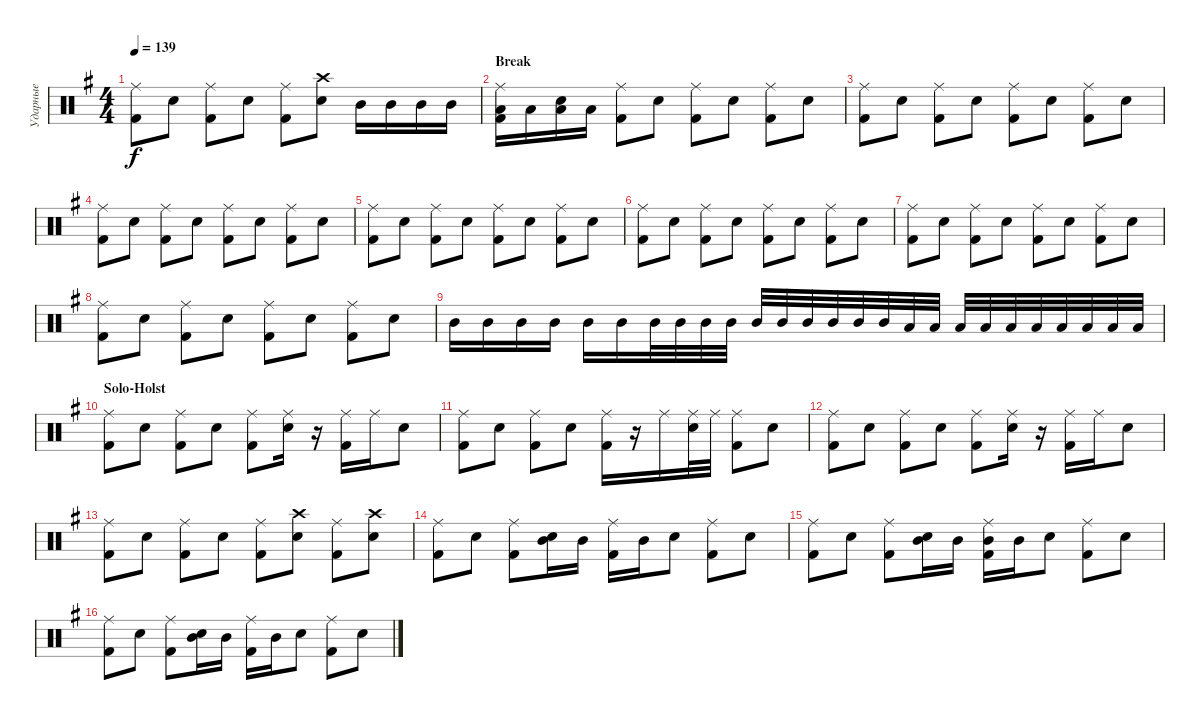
\track ("Ударные" "Ударные") {instrument percussion}
\staff {score}
\articulation defaults
\ts (4 4)
\tempo 139
\clef neutral
\ks eminor
("Ride (middle)" "Kick (hit) 2").8{dy f} "Snare (hit) 2".8 ("Ride (middle)" "Kick (hit) 2").8 "Snare (hit) 2".8 ("Ride (middle)" "Kick (hit) 2").8 ("Crash high (hit)" "Snare (hit) 2").8 "Mid Tom (hit)".16 "Mid Tom (hit)".16 "Mid Tom (hit)".16 "Mid Tom (hit)".16 |
\section ("" "Break")
("Ride (middle)" "Low Tom (hit)" "Kick (hit) 2").16 "Low Tom (hit)".16 ("Snare (hit) 2" "Low Tom (hit)").16 "Low Tom (hit)".16 ("Ride (middle)" "Kick (hit) 2").8 "Snare (hit) 2".8 ("Ride (middle)" "Kick (hit) 2").8 "Snare (hit) 2".8 ("Ride (middle)" "Kick (hit) 2").8 "Snare (hit) 2".8 |
("Ride (middle)" "Kick (hit) 2").8 "Snare (hit) 2".8 ("Ride (middle)" "Kick (hit) 2").8 "Snare (hit) 2".8 ("Ride (middle)" "Kick (hit) 2").8 "Snare (hit) 2".8 ("Ride (middle)" "Kick (hit) 2").8 "Snare (hit) 2".8 |
("Ride (middle)" "Kick (hit) 2").8 "Snare (hit) 2".8 ("Ride (middle)" "Kick (hit) 2").8 "Snare (hit) 2".8 ("Ride (middle)" "Kick (hit) 2").8 "Snare (hit) 2".8 ("Ride (middle)" "Kick (hit) 2").8 "Snare (hit) 2".8 |
("Ride (middle)" "Kick (hit) 2").8 "Snare (hit) 2".8 ("Ride (middle)" "Kick (hit) 2").8 "Snare (hit) 2".8 ("Ride (middle)" "Kick (hit) 2").8 "Snare (hit) 2".8 ("Ride (middle)" "Kick (hit) 2").8 "Snare (hit) 2".8 |
("Ride (middle)" "Kick (hit) 2").8 "Snare (hit) 2".8 ("Ride (middle)" "Kick (hit) 2").8 "Snare (hit) 2".8 ("Ride (middle)" "Kick (hit) 2").8 "Snare (hit) 2".8 ("Ride (middle)" "Kick (hit) 2").8 "Snare (hit) 2".8 |
("Ride (middle)" "Kick (hit) 2").8 "Snare (hit) 2".8 ("Ride (middle)" "Kick (hit) 2").8 "Snare (hit) 2".8 ("Ride (middle)" "Kick (hit) 2").8 "Snare (hit) 2".8 ("Ride (middle)" "Kick (hit) 2").8 "Snare (hit) 2".8 |
("Ride (middle)" "Kick (hit) 2").8 "Snare (hit) 2".8 ("Ride (middle)" "Kick (hit) 2").8 "Snare (hit) 2".8 ("Ride (middle)" "Kick (hit) 2").8 "Snare (hit) 2".8 ("Ride (middle)" "Kick (hit) 2").8 "Snare (hit) 2".8 |
"Mid Tom (hit)".16 "Mid Tom (hit)".16 "Mid Tom (hit)".16 "Mid Tom (hit)".16 "Mid Tom (hit)".16 "Mid Tom (hit)".16 "Mid Tom (hit)".32 "Mid Tom (hit)".32 "Mid Tom (hit)".32 "Mid Tom (hit)".32 "Mid Tom (hit)".32 "Mid Tom (hit)".32 "Mid Tom (hit)".32 "Mid Tom (hit)".32 "Mid Tom (hit)".32 "Mid Tom (hit)".32 "Low Tom (hit)".32 "Low Tom (hit)".32 "Low Tom (hit)".32 "Low Tom (hit)".32 "Low Tom (hit)".32 "Low Tom (hit)".32 "Low Tom (hit)".32 "Low Tom (hit)".32 "Low Tom (hit)".32 "Low Tom (hit)".32 |
\section ("" "Solo-Holst")
("Ride (middle)" "Kick (hit) 2").8 "Snare (hit) 2".8 ("Ride (middle)" "Kick (hit) 2").8 "Snare (hit) 2".8 ("Ride (middle)" "Kick (hit) 2").8 ("Ride (middle)" "Snare (hit) 2").16 r.16 ("Ride (middle)" "Kick (hit) 2").16 "Ride (middle)".16 "Snare (hit) 2".8 |
("Ride (middle)" "Kick (hit) 2").8 "Snare (hit) 2".8 ("Ride (middle)" "Kick (hit) 2").8 "Snare (hit) 2".8 ("Ride (middle)" "Kick (hit) 2").16 r.16 "Ride (middle)".16 ("Ride (middle)" "Snare (hit) 2").32 "Ride (middle)".32 ("Ride (middle)" "Kick (hit) 2").8 "Snare (hit) 2".8 |
("Ride (middle)" "Kick (hit) 2").8 "Snare (hit) 2".8 ("Ride (middle)" "Kick (hit) 2").8 "Snare (hit) 2".8 ("Ride (middle)" "Kick (hit) 2").8 ("Ride (middle)" "Snare (hit) 2").16 r.16 ("Ride (middle)" "Kick (hit) 2").16 "Ride (middle)".16 "Snare (hit) 2".8 |
("Ride (middle)" "Kick (hit) 2").8 "Snare (hit) 2".8 ("Ride (middle)" "Kick (hit) 2").8 "Snare (hit) 2".8 ("Ride (middle)" "Kick (hit) 2").8 ("Crash high (hit)" "Snare (hit) 2").8 ("Ride (middle)" "Kick (hit) 2").8 ("Crash high (hit)" "Snare (hit) 2").8 |
("Ride (middle)" "Kick (hit) 2").8 "Snare (hit) 2".8 ("Ride (middle)" "Kick (hit) 2").8 ("Mid Tom (hit)" "Snare (hit) 2").16 "Mid Tom (hit)".16 ("Ride (middle)" "Kick (hit) 2").16 "Mid Tom (hit)".16 "Snare (hit) 2".8 ("Ride (middle)" "Kick (hit) 2").8 "Snare (hit) 2".8 |
("Ride (middle)" "Kick (hit) 2").8 "Snare (hit) 2".8 ("Ride (middle)" "Kick (hit) 2").8 ("Mid Tom (hit)" "Snare (hit) 2").16 "Mid Tom (hit)".16 ("Mid Tom (hit)" "Ride (middle)" "Kick (hit) 2").16 "Mid Tom (hit)".16 "Snare (hit) 2".8 ("Ride (middle)" "Kick (hit) 2").8 "Snare (hit) 2".8 |
("Ride (middle)" "Kick (hit) 2").8 "Snare (hit) 2".8 ("Ride (middle)" "Kick (hit) 2").8 ("Mid Tom (hit)" "Snare (hit) 2").16 "Mid Tom (hit)".16 ("Ride (middle)" "Kick (hit) 2").16 "Mid Tom (hit)".16 "Snare (hit) 2".8 ("Ride (middle)" "Kick (hit) 2").8 "Snare (hit) 2".8
